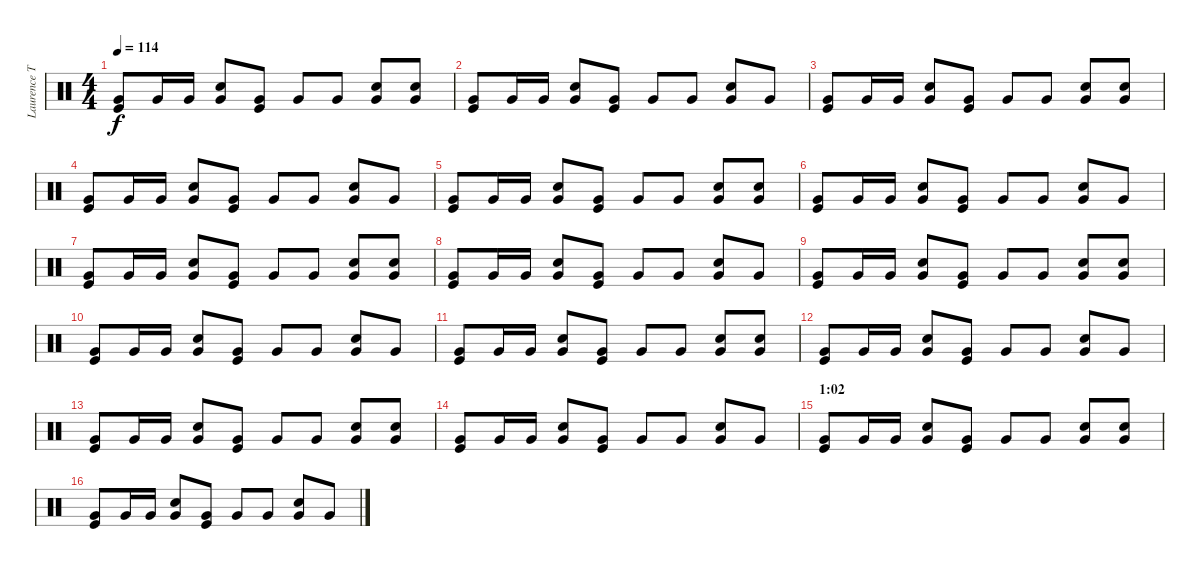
\track ("Laurence Tolhurst (drums)" "Laurence T") {instrument percussion}
\staff {score}
\articulation defaults
\ts (4 4)
\tempo 114
\clef neutral
\ks c
("Very Low Tom (hit)" "Kick (hit)").8{dy f} "Very Low Tom (hit)".16 "Very Low Tom (hit)".16 ("Very Low Tom (hit)" "Snare (hit) 2").8 ("Very Low Tom (hit)" "Kick (hit)").8 "Very Low Tom (hit)".8 "Very Low Tom (hit)".8 ("Very Low Tom (hit)" "Snare (hit) 2").8 ("Very Low Tom (hit)" "Snare (hit) 2").8 |
("Very Low Tom (hit)" "Kick (hit)").8 "Very Low Tom (hit)".16 "Very Low Tom (hit)".16 ("Very Low Tom (hit)" "Snare (hit) 2").8 ("Very Low Tom (hit)" "Kick (hit)").8 "Very Low Tom (hit)".8 "Very Low Tom (hit)".8 ("Very Low Tom (hit)" "Snare (hit) 2").8 "Very Low Tom (hit)".8 |
("Very Low Tom (hit)" "Kick (hit)").8 "Very Low Tom (hit)".16 "Very Low Tom (hit)".16 ("Very Low Tom (hit)" "Snare (hit) 2").8 ("Very Low Tom (hit)" "Kick (hit)").8 "Very Low Tom (hit)".8 "Very Low Tom (hit)".8 ("Very Low Tom (hit)" "Snare (hit) 2").8 ("Very Low Tom (hit)" "Snare (hit) 2").8 |
("Very Low Tom (hit)" "Kick (hit)").8 "Very Low Tom (hit)".16 "Very Low Tom (hit)".16 ("Very Low Tom (hit)" "Snare (hit) 2").8 ("Very Low Tom (hit)" "Kick (hit)").8 "Very Low Tom (hit)".8 "Very Low Tom (hit)".8 ("Very Low Tom (hit)" "Snare (hit) 2").8 "Very Low Tom (hit)".8 |
("Very Low Tom (hit)" "Kick (hit)").8 "Very Low Tom (hit)".16 "Very Low Tom (hit)".16 ("Very Low Tom (hit)" "Snare (hit) 2").8 ("Very Low Tom (hit)" "Kick (hit)").8 "Very Low Tom (hit)".8 "Very Low Tom (hit)".8 ("Very Low Tom (hit)" "Snare (hit) 2").8 ("Very Low Tom (hit)" "Snare (hit) 2").8 |
("Very Low Tom (hit)" "Kick (hit)").8 "Very Low Tom (hit)".16 "Very Low Tom (hit)".16 ("Very Low Tom (hit)" "Snare (hit) 2").8 ("Very Low Tom (hit)" "Kick (hit)").8 "Very Low Tom (hit)".8 "Very Low Tom (hit)".8 ("Very Low Tom (hit)" "Snare (hit) 2").8 "Very Low Tom (hit)".8 |
("Very Low Tom (hit)" "Kick (hit)").8 "Very Low Tom (hit)".16 "Very Low Tom (hit)".16 ("Very Low Tom (hit)" "Snare (hit) 2").8 ("Very Low Tom (hit)" "Kick (hit)").8 "Very Low Tom (hit)".8 "Very Low Tom (hit)".8 ("Very Low Tom (hit)" "Snare (hit) 2").8 ("Very Low Tom (hit)" "Snare (hit) 2").8 |
("Very Low Tom (hit)" "Kick (hit)").8 "Very Low Tom (hit)".16 "Very Low Tom (hit)".16 ("Very Low Tom (hit)" "Snare (hit) 2").8 ("Very Low Tom (hit)" "Kick (hit)").8 "Very Low Tom (hit)".8 "Very Low Tom (hit)".8 ("Very Low Tom (hit)" "Snare (hit) 2").8 "Very Low Tom (hit)".8 |
("Very Low Tom (hit)" "Kick (hit)").8 "Very Low Tom (hit)".16 "Very Low Tom (hit)".16 ("Very Low Tom (hit)" "Snare (hit) 2").8 ("Very Low Tom (hit)" "Kick (hit)").8 "Very Low Tom (hit)".8 "Very Low Tom (hit)".8 ("Very Low Tom (hit)" "Snare (hit) 2").8 ("Very Low Tom (hit)" "Snare (hit) 2").8 |
("Very Low Tom (hit)" "Kick (hit)").8 "Very Low Tom (hit)".16 "Very Low Tom (hit)".16 ("Very Low Tom (hit)" "Snare (hit) 2").8 ("Very Low Tom (hit)" "Kick (hit)").8 "Very Low Tom (hit)".8 "Very Low Tom (hit)".8 ("Very Low Tom (hit)" "Snare (hit) 2").8 "Very Low Tom (hit)".8 |
("Very Low Tom (hit)" "Kick (hit)").8 "Very Low Tom (hit)".16 "Very Low Tom (hit)".16 ("Very Low Tom (hit)" "Snare (hit) 2").8 ("Very Low Tom (hit)" "Kick (hit)").8 "Very Low Tom (hit)".8 "Very Low Tom (hit)".8 ("Very Low Tom (hit)" "Snare (hit) 2").8 ("Very Low Tom (hit)" "Snare (hit) 2").8 |
("Very Low Tom (hit)" "Kick (hit)").8 "Very Low Tom (hit)".16 "Very Low Tom (hit)".16 ("Very Low Tom (hit)" "Snare (hit) 2").8 ("Very Low Tom (hit)" "Kick (hit)").8 "Very Low Tom (hit)".8 "Very Low Tom (hit)".8 ("Very Low Tom (hit)" "Snare (hit) 2").8 "Very Low Tom (hit)".8 |
("Very Low Tom (hit)" "Kick (hit)").8 "Very Low Tom (hit)".16 "Very Low Tom (hit)".16 ("Very Low Tom (hit)" "Snare (hit) 2").8 ("Very Low Tom (hit)" "Kick (hit)").8 "Very Low Tom (hit)".8 "Very Low Tom (hit)".8 ("Very Low Tom (hit)" "Snare (hit) 2").8 ("Very Low Tom (hit)" "Snare (hit) 2").8 |
("Very Low Tom (hit)" "Kick (hit)").8 "Very Low Tom (hit)".16 "Very Low Tom (hit)".16 ("Very Low Tom (hit)" "Snare (hit) 2").8 ("Very Low Tom (hit)" "Kick (hit)").8 "Very Low Tom (hit)".8 "Very Low Tom (hit)".8 ("Very Low Tom (hit)" "Snare (hit) 2").8 "Very Low Tom (hit)".8 |
\section ("" "1:02")
("Very Low Tom (hit)" "Kick (hit)").8 "Very Low Tom (hit)".16 "Very Low Tom (hit)".16 ("Very Low Tom (hit)" "Snare (hit) 2").8 ("Very Low Tom (hit)" "Kick (hit)").8 "Very Low Tom (hit)".8 "Very Low Tom (hit)".8 ("Very Low Tom (hit)" "Snare (hit) 2").8 ("Very Low Tom (hit)" "Snare (hit) 2").8 |
("Very Low Tom (hit)" "Kick (hit)").8 "Very Low Tom (hit)".16 "Very Low Tom (hit)".16 ("Very Low Tom (hit)" "Snare (hit) 2").8 ("Very Low Tom (hit)" "Kick (hit)").8 "Very Low Tom (hit)".8 "Very Low Tom (hit)".8 ("Very Low Tom (hit)" "Snare (hit) 2").8 "Very Low Tom (hit)".8
